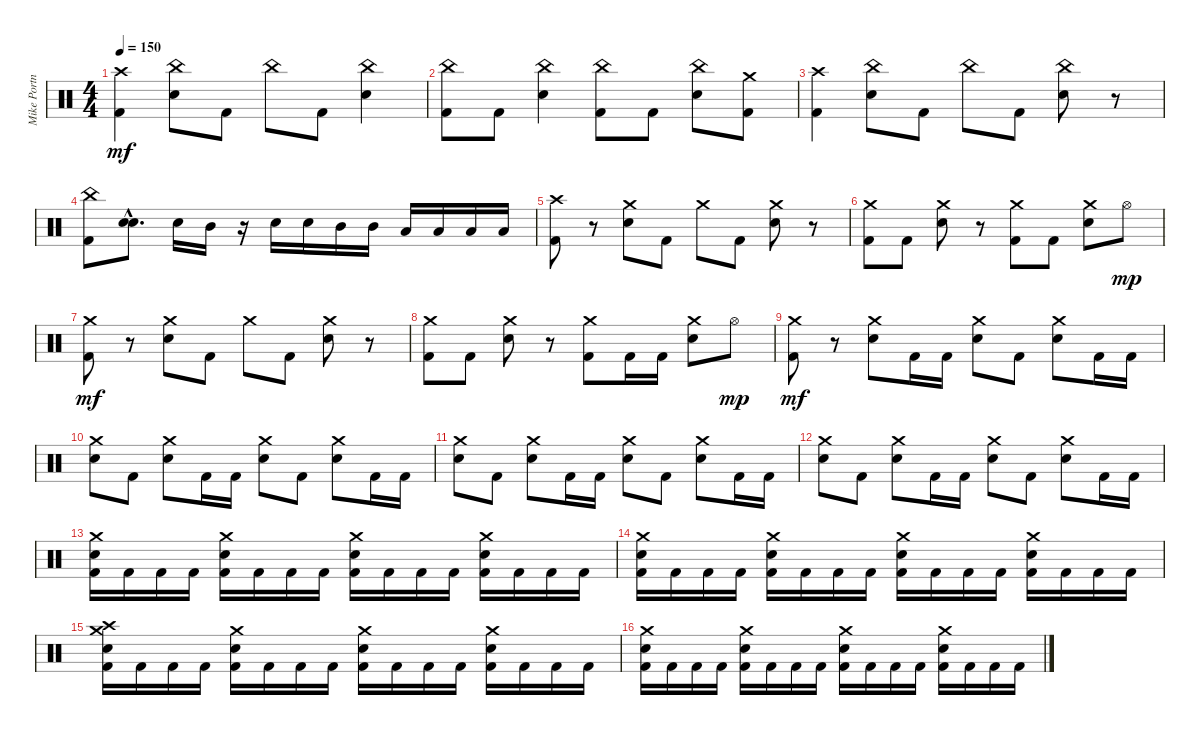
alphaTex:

\track ("Mike Portnoy: Drums" "Mike Portn") {instrument percussion}
\staff {score}
\articulation defaults
\ts (4 4)
\tempo 150
\clef neutral
\ks c
("Kick (hit) 2" "Crash high (hit)").4{dy mf} ("Electric Snare (hit)" "China (hit)").8 "Kick (hit) 2".8 "China (hit)".8 "Kick (hit) 2".8 ("Electric Snare (hit)" "China (hit)").4 |
("Kick (hit) 2" "China (hit)").8 "Kick (hit) 2".8 ("Electric Snare (hit)" "China (hit)").4 ("Kick (hit) 2" "China (hit)").8 "Kick (hit) 2".8 ("Electric Snare (hit)" "China (hit)").8 ("Kick (hit) 2" "Crash medium (hit)").8 |
("Kick (hit) 2" "Crash high (hit)").4 ("Electric Snare (hit)" "China (hit)").8 "Kick (hit) 2".8 "China (hit)".8 "Kick (hit) 2".8 ("Electric Snare (hit)" "China (hit)").8 r.8 |
("Kick (hit) 2" "China (hit)").8 ("Electric Snare (hit)"{hac} "Electric Snare (hit)").8{d} "Electric Snare (hit)".16 "Mid Tom (hit)".16 r.16 "Electric Snare (hit)".16 "Electric Snare (hit)".16 "Mid Tom (hit)".16 "Mid Tom (hit)".16 "Low Tom (hit)".16 "Low Tom (hit)".16 "Low Floor Tom (hit)".16 "Low Floor Tom (hit)".16 |
("Kick (hit) 2" "Crash high (hit)").8 r.8 ("Electric Snare (hit)" "Crash medium (hit)").8 "Kick (hit) 2".8 "Crash medium (hit)".8 "Kick (hit) 2".8 ("Electric Snare (hit)" "Crash medium (hit)").8 r.8 |
("Kick (hit) 2" "Crash medium (hit)").8 "Kick (hit) 2".8 ("Electric Snare (hit)" "Crash medium (hit)").8 r.8 ("Kick (hit) 2" "Crash medium (hit)").8 "Kick (hit) 2".8 ("Electric Snare (hit)" "Crash medium (hit)").8 "Hi-Hat (open)".8{dy mp} |
("Kick (hit) 2" "Crash medium (hit)").8{dy mf} r.8 ("Electric Snare (hit)" "Crash medium (hit)").8 "Kick (hit) 2".8 "Crash medium (hit)".8 "Kick (hit) 2".8 ("Electric Snare (hit)" "Crash medium (hit)").8 r.8 |
("Kick (hit) 2" "Crash medium (hit)").8 "Kick (hit) 2".8 ("Electric Snare (hit)" "Crash medium (hit)").8 r.8 ("Kick (hit) 2" "Crash medium (hit)").8 "Kick (hit) 2".16 "Kick (hit) 2".16 ("Electric Snare (hit)" "Crash medium (hit)").8 "Hi-Hat (open)".8{dy mp} |
("Kick (hit) 2" "Crash medium (hit)").8{dy mf} r.8 ("Electric Snare (hit)" "Crash medium (hit)").8 "Kick (hit) 2".16 "Kick (hit) 2".16 ("Electric Snare (hit)" "Crash medium (hit)").8 "Kick (hit) 2".8 ("Electric Snare (hit)" "Crash medium (hit)").8 "Kick (hit) 2".16 "Kick (hit) 2".16 |
("Electric Snare (hit)" "Crash medium (hit)").8 "Kick (hit) 2".8 ("Electric Snare (hit)" "Crash medium (hit)").8 "Kick (hit) 2".16 "Kick (hit) 2".16 ("Electric Snare (hit)" "Crash medium (hit)").8 "Kick (hit) 2".8 ("Electric Snare (hit)" "Crash medium (hit)").8 "Kick (hit) 2".16 "Kick (hit) 2".16 |
("Electric Snare (hit)" "Crash medium (hit)").8 "Kick (hit) 2".8 ("Electric Snare (hit)" "Crash medium (hit)").8 "Kick (hit) 2".16 "Kick (hit) 2".16 ("Electric Snare (hit)" "Crash medium (hit)").8 "Kick (hit) 2".8 ("Electric Snare (hit)" "Crash medium (hit)").8 "Kick (hit) 2".16 "Kick (hit) 2".16 |
("Electric Snare (hit)" "Crash medium (hit)").8 "Kick (hit) 2".8 ("Electric Snare (hit)" "Crash medium (hit)").8 "Kick (hit) 2".16 "Kick (hit) 2".16 ("Electric Snare (hit)" "Crash medium (hit)").8 "Kick (hit) 2".8 ("Electric Snare (hit)" "Crash medium (hit)").8 "Kick (hit) 2".16 "Kick (hit) 2".16 |
("Kick (hit) 2" "Electric Snare (hit)" "Crash medium (hit)").16 "Kick (hit) 2".16 "Kick (hit) 2".16 "Kick (hit) 2".16 ("Kick (hit) 2" "Electric Snare (hit)" "Crash medium (hit)").16 "Kick (hit) 2".16 "Kick (hit) 2".16 "Kick (hit) 2".16 ("Kick (hit) 2" "Electric Snare (hit)" "Crash medium (hit)").16 "Kick (hit) 2".16 "Kick (hit) 2".16 "Kick (hit) 2".16 ("Kick (hit) 2" "Electric Snare (hit)" "Crash medium (hit)").16 "Kick (hit) 2".16 "Kick (hit) 2".16 "Kick (hit) 2".16 |
("Kick (hit) 2" "Electric Snare (hit)" "Crash medium (hit)").16 "Kick (hit) 2".16 "Kick (hit) 2".16 "Kick (hit) 2".16 ("Kick (hit) 2" "Electric Snare (hit)" "Crash medium (hit)").16 "Kick (hit) 2".16 "Kick (hit) 2".16 "Kick (hit) 2".16 ("Kick (hit) 2" "Electric Snare (hit)" "Crash medium (hit)").16 "Kick (hit) 2".16 "Kick (hit) 2".16 "Kick (hit) 2".16 ("Kick (hit) 2" "Electric Snare (hit)" "Crash medium (hit)").16 "Kick (hit) 2".16 "Kick (hit) 2".16 "Kick (hit) 2".16 |
("Kick (hit) 2" "Electric Snare (hit)" "Crash high (hit)" "Crash medium (hit)").16 "Kick (hit) 2".16 "Kick (hit) 2".16 "Kick (hit) 2".16 ("Kick (hit) 2" "Electric Snare (hit)" "Crash medium (hit)").16 "Kick (hit) 2".16 "Kick (hit) 2".16 "Kick (hit) 2".16 ("Kick (hit) 2" "Electric Snare (hit)" "Crash medium (hit)").16 "Kick (hit) 2".16 "Kick (hit) 2".16 "Kick (hit) 2".16 ("Kick (hit) 2" "Electric Snare (hit)" "Crash medium (hit)").16 "Kick (hit) 2".16 "Kick (hit) 2".16 "Kick (hit) 2".16 |
("Kick (hit) 2" "Electric Snare (hit)" "Crash medium (hit)").16 "Kick (hit) 2".16 "Kick (hit) 2".16 "Kick (hit) 2".16 ("Kick (hit) 2" "Electric Snare (hit)" "Crash medium (hit)").16 "Kick (hit) 2".16 "Kick (hit) 2".16 "Kick (hit) 2".16 ("Kick (hit) 2" "Electric Snare (hit)" "Crash medium (hit)").16 "Kick (hit) 2".16 "Kick (hit) 2".16 "Kick (hit) 2".16 ("Kick (hit) 2" "Electric Snare (hit)" "Crash medium (hit)").16 "Kick (hit) 2".16 "Kick (hit) 2".16 "Kick (hit) 2".16
